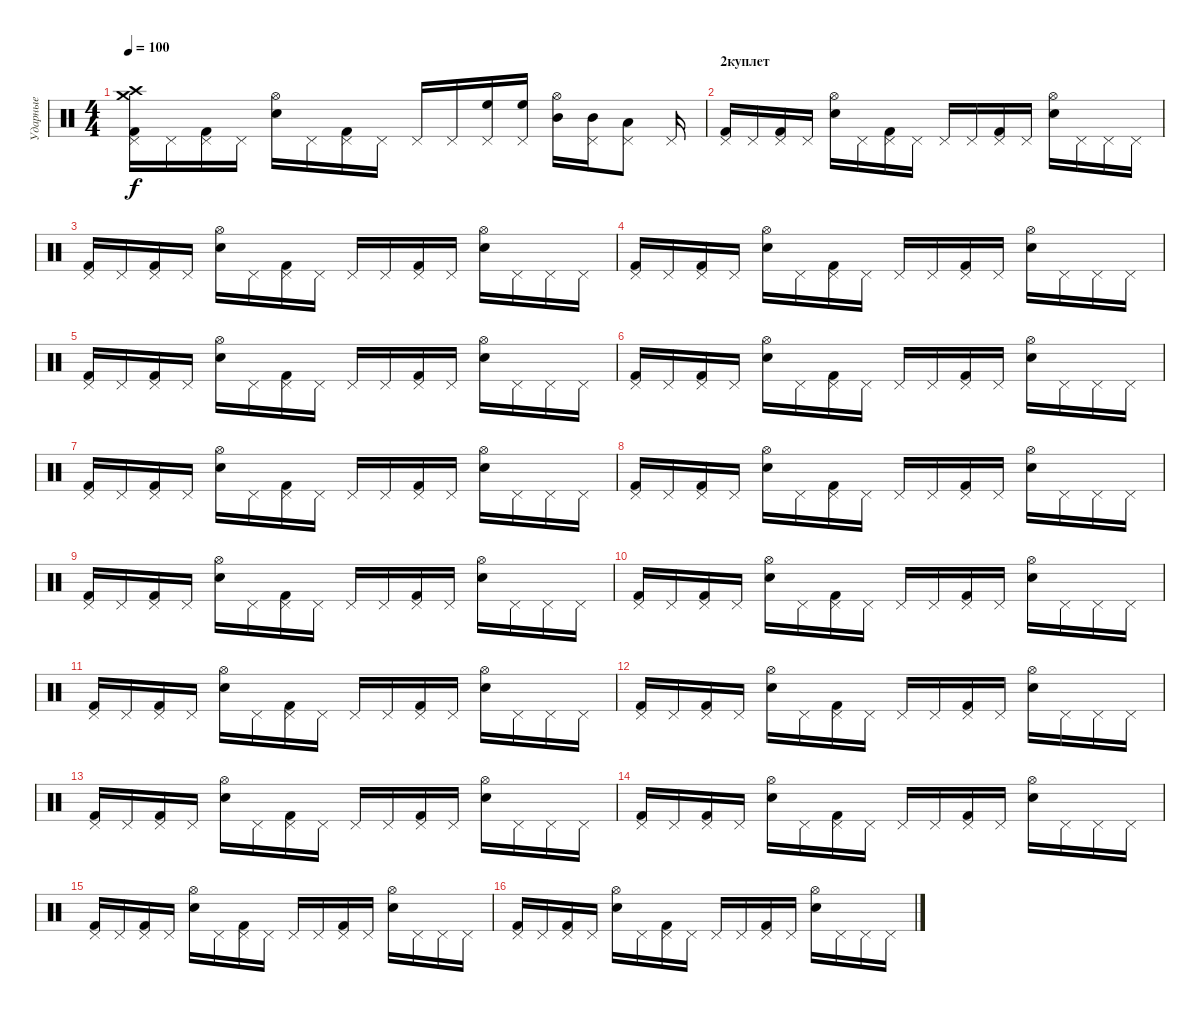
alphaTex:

\track ("Ударные" "Ударные") {instrument percussion}
\staff {score}
\articulation defaults
\ts (4 4)
\tempo 100
\clef neutral
\ks c
("Pedal Hi-Hat (hit)" "Kick (hit) 2" "Crash high (hit)" "Crash medium (hit)").16{dy f} "Pedal Hi-Hat (hit)".16 ("Pedal Hi-Hat (hit)" "Kick (hit) 2").16 "Pedal Hi-Hat (hit)".16 ("Hi-Hat (open)" "Snare (hit) 2").16 "Pedal Hi-Hat (hit)".16 ("Pedal Hi-Hat (hit)" "Kick (hit) 2").16 "Pedal Hi-Hat (hit)".16 "Pedal Hi-Hat (hit)".16 "Pedal Hi-Hat (hit)".16 ("Pedal Hi-Hat (hit)" "High Floor Tom (hit)").16 ("Pedal Hi-Hat (hit)" "High Floor Tom (hit)").16 ("Hi-Hat (open)" "Mid Tom (hit)").16 ("Pedal Hi-Hat (hit)" "Mid Tom (hit)").16 ("Pedal Hi-Hat (hit)" "Low Tom (hit)").8 "Pedal Hi-Hat (hit)".16 |
\section ("" "2куплет")
("Pedal Hi-Hat (hit)" "Kick (hit) 2").16 "Pedal Hi-Hat (hit)".16 ("Pedal Hi-Hat (hit)" "Kick (hit) 2").16 "Pedal Hi-Hat (hit)".16 ("Hi-Hat (open)" "Snare (hit) 2").16 "Pedal Hi-Hat (hit)".16 ("Pedal Hi-Hat (hit)" "Kick (hit) 2").16 "Pedal Hi-Hat (hit)".16 "Pedal Hi-Hat (hit)".16 "Pedal Hi-Hat (hit)".16 ("Pedal Hi-Hat (hit)" "Kick (hit) 2").16 "Pedal Hi-Hat (hit)".16 ("Hi-Hat (open)" "Snare (hit) 2").16 "Pedal Hi-Hat (hit)".16 "Pedal Hi-Hat (hit)".16 "Pedal Hi-Hat (hit)".16 |
("Pedal Hi-Hat (hit)" "Kick (hit) 2").16 "Pedal Hi-Hat (hit)".16 ("Pedal Hi-Hat (hit)" "Kick (hit) 2").16 "Pedal Hi-Hat (hit)".16 ("Hi-Hat (open)" "Snare (hit) 2").16 "Pedal Hi-Hat (hit)".16 ("Pedal Hi-Hat (hit)" "Kick (hit) 2").16 "Pedal Hi-Hat (hit)".16 "Pedal Hi-Hat (hit)".16 "Pedal Hi-Hat (hit)".16 ("Pedal Hi-Hat (hit)" "Kick (hit) 2").16 "Pedal Hi-Hat (hit)".16 ("Hi-Hat (open)" "Snare (hit) 2").16 "Pedal Hi-Hat (hit)".16 "Pedal Hi-Hat (hit)".16 "Pedal Hi-Hat (hit)".16 |
("Pedal Hi-Hat (hit)" "Kick (hit) 2").16 "Pedal Hi-Hat (hit)".16 ("Pedal Hi-Hat (hit)" "Kick (hit) 2").16 "Pedal Hi-Hat (hit)".16 ("Hi-Hat (open)" "Snare (hit) 2").16 "Pedal Hi-Hat (hit)".16 ("Pedal Hi-Hat (hit)" "Kick (hit) 2").16 "Pedal Hi-Hat (hit)".16 "Pedal Hi-Hat (hit)".16 "Pedal Hi-Hat (hit)".16 ("Pedal Hi-Hat (hit)" "Kick (hit) 2").16 "Pedal Hi-Hat (hit)".16 ("Hi-Hat (open)" "Snare (hit) 2").16 "Pedal Hi-Hat (hit)".16 "Pedal Hi-Hat (hit)".16 "Pedal Hi-Hat (hit)".16 |
("Pedal Hi-Hat (hit)" "Kick (hit) 2").16 "Pedal Hi-Hat (hit)".16 ("Pedal Hi-Hat (hit)" "Kick (hit) 2").16 "Pedal Hi-Hat (hit)".16 ("Hi-Hat (open)" "Snare (hit) 2").16 "Pedal Hi-Hat (hit)".16 ("Pedal Hi-Hat (hit)" "Kick (hit) 2").16 "Pedal Hi-Hat (hit)".16 "Pedal Hi-Hat (hit)".16 "Pedal Hi-Hat (hit)".16 ("Pedal Hi-Hat (hit)" "Kick (hit) 2").16 "Pedal Hi-Hat (hit)".16 ("Hi-Hat (open)" "Snare (hit) 2").16 "Pedal Hi-Hat (hit)".16 "Pedal Hi-Hat (hit)".16 "Pedal Hi-Hat (hit)".16 |
("Pedal Hi-Hat (hit)" "Kick (hit) 2").16 "Pedal Hi-Hat (hit)".16 ("Pedal Hi-Hat (hit)" "Kick (hit) 2").16 "Pedal Hi-Hat (hit)".16 ("Hi-Hat (open)" "Snare (hit) 2").16 "Pedal Hi-Hat (hit)".16 ("Pedal Hi-Hat (hit)" "Kick (hit) 2").16 "Pedal Hi-Hat (hit)".16 "Pedal Hi-Hat (hit)".16 "Pedal Hi-Hat (hit)".16 ("Pedal Hi-Hat (hit)" "Kick (hit) 2").16 "Pedal Hi-Hat (hit)".16 ("Hi-Hat (open)" "Snare (hit) 2").16 "Pedal Hi-Hat (hit)".16 "Pedal Hi-Hat (hit)".16 "Pedal Hi-Hat (hit)".16 |
("Pedal Hi-Hat (hit)" "Kick (hit) 2").16 "Pedal Hi-Hat (hit)".16 ("Pedal Hi-Hat (hit)" "Kick (hit) 2").16 "Pedal Hi-Hat (hit)".16 ("Hi-Hat (open)" "Snare (hit) 2").16 "Pedal Hi-Hat (hit)".16 ("Pedal Hi-Hat (hit)" "Kick (hit) 2").16 "Pedal Hi-Hat (hit)".16 "Pedal Hi-Hat (hit)".16 "Pedal Hi-Hat (hit)".16 ("Pedal Hi-Hat (hit)" "Kick (hit) 2").16 "Pedal Hi-Hat (hit)".16 ("Hi-Hat (open)" "Snare (hit) 2").16 "Pedal Hi-Hat (hit)".16 "Pedal Hi-Hat (hit)".16 "Pedal Hi-Hat (hit)".16 |
("Pedal Hi-Hat (hit)" "Kick (hit) 2").16 "Pedal Hi-Hat (hit)".16 ("Pedal Hi-Hat (hit)" "Kick (hit) 2").16 "Pedal Hi-Hat (hit)".16 ("Hi-Hat (open)" "Snare (hit) 2").16 "Pedal Hi-Hat (hit)".16 ("Pedal Hi-Hat (hit)" "Kick (hit) 2").16 "Pedal Hi-Hat (hit)".16 "Pedal Hi-Hat (hit)".16 "Pedal Hi-Hat (hit)".16 ("Pedal Hi-Hat (hit)" "Kick (hit) 2").16 "Pedal Hi-Hat (hit)".16 ("Hi-Hat (open)" "Snare (hit) 2").16 "Pedal Hi-Hat (hit)".16 "Pedal Hi-Hat (hit)".16 "Pedal Hi-Hat (hit)".16 |
("Pedal Hi-Hat (hit)" "Kick (hit) 2").16 "Pedal Hi-Hat (hit)".16 ("Pedal Hi-Hat (hit)" "Kick (hit) 2").16 "Pedal Hi-Hat (hit)".16 ("Hi-Hat (open)" "Snare (hit) 2").16 "Pedal Hi-Hat (hit)".16 ("Pedal Hi-Hat (hit)" "Kick (hit) 2").16 "Pedal Hi-Hat (hit)".16 "Pedal Hi-Hat (hit)".16 "Pedal Hi-Hat (hit)".16 ("Pedal Hi-Hat (hit)" "Kick (hit) 2").16 "Pedal Hi-Hat (hit)".16 ("Hi-Hat (open)" "Snare (hit) 2").16 "Pedal Hi-Hat (hit)".16 "Pedal Hi-Hat (hit)".16 "Pedal Hi-Hat (hit)".16 |
("Pedal Hi-Hat (hit)" "Kick (hit) 2").16 "Pedal Hi-Hat (hit)".16 ("Pedal Hi-Hat (hit)" "Kick (hit) 2").16 "Pedal Hi-Hat (hit)".16 ("Hi-Hat (open)" "Snare (hit) 2").16 "Pedal Hi-Hat (hit)".16 ("Pedal Hi-Hat (hit)" "Kick (hit) 2").16 "Pedal Hi-Hat (hit)".16 "Pedal Hi-Hat (hit)".16 "Pedal Hi-Hat (hit)".16 ("Pedal Hi-Hat (hit)" "Kick (hit) 2").16 "Pedal Hi-Hat (hit)".16 ("Hi-Hat (open)" "Snare (hit) 2").16 "Pedal Hi-Hat (hit)".16 "Pedal Hi-Hat (hit)".16 "Pedal Hi-Hat (hit)".16 |
("Pedal Hi-Hat (hit)" "Kick (hit) 2").16 "Pedal Hi-Hat (hit)".16 ("Pedal Hi-Hat (hit)" "Kick (hit) 2").16 "Pedal Hi-Hat (hit)".16 ("Hi-Hat (open)" "Snare (hit) 2").16 "Pedal Hi-Hat (hit)".16 ("Pedal Hi-Hat (hit)" "Kick (hit) 2").16 "Pedal Hi-Hat (hit)".16 "Pedal Hi-Hat (hit)".16 "Pedal Hi-Hat (hit)".16 ("Pedal Hi-Hat (hit)" "Kick (hit) 2").16 "Pedal Hi-Hat (hit)".16 ("Hi-Hat (open)" "Snare (hit) 2").16 "Pedal Hi-Hat (hit)".16 "Pedal Hi-Hat (hit)".16 "Pedal Hi-Hat (hit)".16 |
("Pedal Hi-Hat (hit)" "Kick (hit) 2").16 "Pedal Hi-Hat (hit)".16 ("Pedal Hi-Hat (hit)" "Kick (hit) 2").16 "Pedal Hi-Hat (hit)".16 ("Hi-Hat (open)" "Snare (hit) 2").16 "Pedal Hi-Hat (hit)".16 ("Pedal Hi-Hat (hit)" "Kick (hit) 2").16 "Pedal Hi-Hat (hit)".16 "Pedal Hi-Hat (hit)".16 "Pedal Hi-Hat (hit)".16 ("Pedal Hi-Hat (hit)" "Kick (hit) 2").16 "Pedal Hi-Hat (hit)".16 ("Hi-Hat (open)" "Snare (hit) 2").16 "Pedal Hi-Hat (hit)".16 "Pedal Hi-Hat (hit)".16 "Pedal Hi-Hat (hit)".16 |
("Pedal Hi-Hat (hit)" "Kick (hit) 2").16 "Pedal Hi-Hat (hit)".16 ("Pedal Hi-Hat (hit)" "Kick (hit) 2").16 "Pedal Hi-Hat (hit)".16 ("Hi-Hat (open)" "Snare (hit) 2").16 "Pedal Hi-Hat (hit)".16 ("Pedal Hi-Hat (hit)" "Kick (hit) 2").16 "Pedal Hi-Hat (hit)".16 "Pedal Hi-Hat (hit)".16 "Pedal Hi-Hat (hit)".16 ("Pedal Hi-Hat (hit)" "Kick (hit) 2").16 "Pedal Hi-Hat (hit)".16 ("Hi-Hat (open)" "Snare (hit) 2").16 "Pedal Hi-Hat (hit)".16 "Pedal Hi-Hat (hit)".16 "Pedal Hi-Hat (hit)".16 |
("Pedal Hi-Hat (hit)" "Kick (hit) 2").16 "Pedal Hi-Hat (hit)".16 ("Pedal Hi-Hat (hit)" "Kick (hit) 2").16 "Pedal Hi-Hat (hit)".16 ("Hi-Hat (open)" "Snare (hit) 2").16 "Pedal Hi-Hat (hit)".16 ("Pedal Hi-Hat (hit)" "Kick (hit) 2").16 "Pedal Hi-Hat (hit)".16 "Pedal Hi-Hat (hit)".16 "Pedal Hi-Hat (hit)".16 ("Pedal Hi-Hat (hit)" "Kick (hit) 2").16 "Pedal Hi-Hat (hit)".16 ("Hi-Hat (open)" "Snare (hit) 2").16 "Pedal Hi-Hat (hit)".16 "Pedal Hi-Hat (hit)".16 "Pedal Hi-Hat (hit)".16 |
("Pedal Hi-Hat (hit)" "Kick (hit) 2").16 "Pedal Hi-Hat (hit)".16 ("Pedal Hi-Hat (hit)" "Kick (hit) 2").16 "Pedal Hi-Hat (hit)".16 ("Hi-Hat (open)" "Snare (hit) 2").16 "Pedal Hi-Hat (hit)".16 ("Pedal Hi-Hat (hit)" "Kick (hit) 2").16 "Pedal Hi-Hat (hit)".16 "Pedal Hi-Hat (hit)".16 "Pedal Hi-Hat (hit)".16 ("Pedal Hi-Hat (hit)" "Kick (hit) 2").16 "Pedal Hi-Hat (hit)".16 ("Hi-Hat (open)" "Snare (hit) 2").16 "Pedal Hi-Hat (hit)".16 "Pedal Hi-Hat (hit)".16 "Pedal Hi-Hat (hit)".16 |
("Pedal Hi-Hat (hit)" "Kick (hit) 2").16 "Pedal Hi-Hat (hit)".16 ("Pedal Hi-Hat (hit)" "Kick (hit) 2").16 "Pedal Hi-Hat (hit)".16 ("Hi-Hat (open)" "Snare (hit) 2").16 "Pedal Hi-Hat (hit)".16 ("Pedal Hi-Hat (hit)" "Kick (hit) 2").16 "Pedal Hi-Hat (hit)".16 "Pedal Hi-Hat (hit)".16 "Pedal Hi-Hat (hit)".16 ("Pedal Hi-Hat (hit)" "Kick (hit) 2").16 "Pedal Hi-Hat (hit)".16 ("Hi-Hat (open)" "Snare (hit) 2").16 "Pedal Hi-Hat (hit)".16 "Pedal Hi-Hat (hit)".16 "Pedal Hi-Hat (hit)".16
